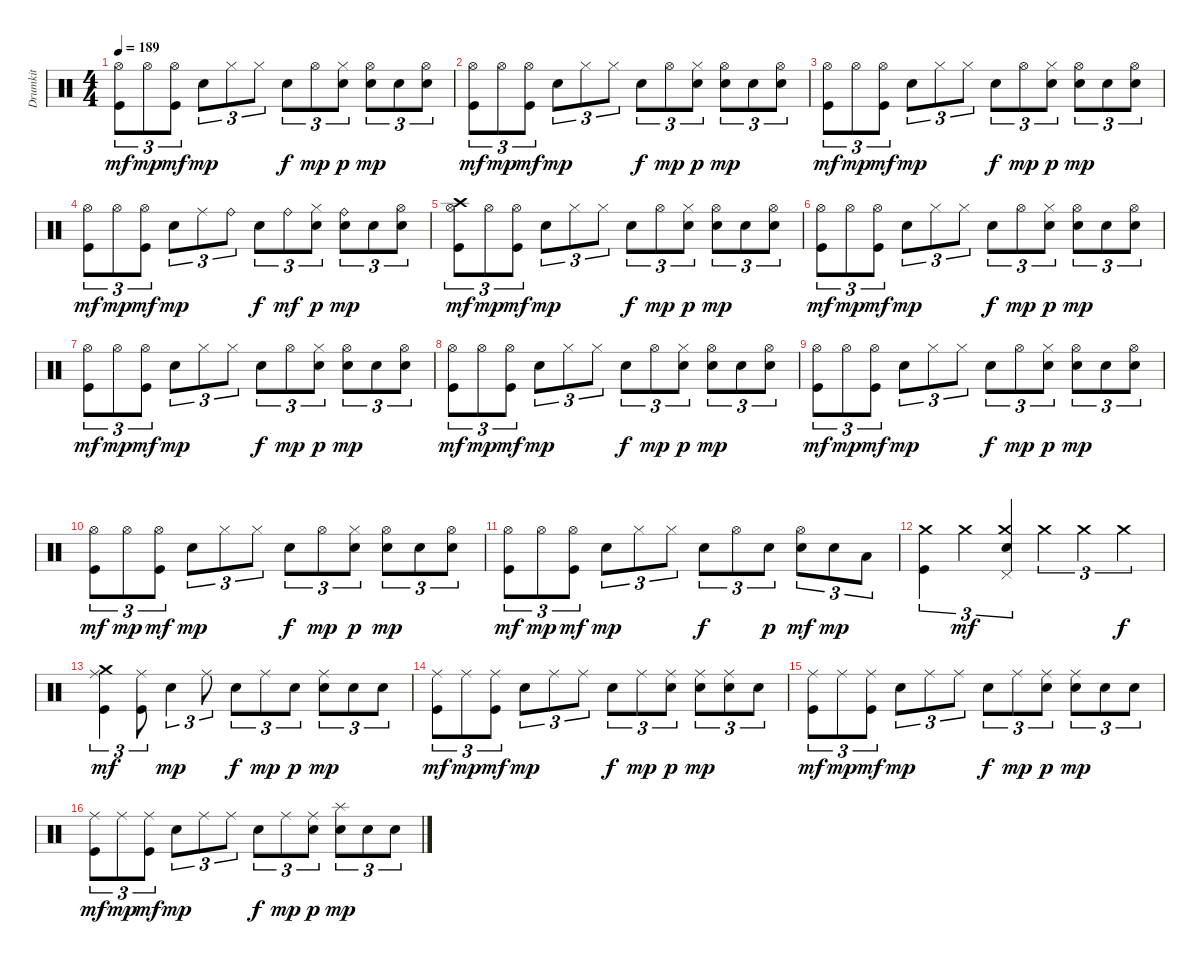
\track ("Drumkit" "Drumkit") {instrument percussion}
\staff {score}
\articulation defaults
\ts (4 4)
\tempo 189
\clef neutral
\ks c
("Kick (hit)" "Hi-Hat (open)").8{tu (3 2) dy mf} "Hi-Hat (open)".8{tu (3 2) dy mp} ("Kick (hit)" "Hi-Hat (open)").8{tu (3 2) dy mf} "Snare (hit) 2".8{tu (3 2) dy mp} "Hi-Hat (closed)".8{tu (3 2)} "Hi-Hat (closed)".8{tu (3 2)} "Snare (hit) 2".8{tu (3 2) dy f} "Hi-Hat (open)".8{tu (3 2) dy mp} ("Hi-Hat (closed)" "Snare (hit) 2").8{tu (3 2) dy p} ("Hi-Hat (open)" "Snare (hit) 2").8{tu (3 2) dy mp} "Snare (hit) 2".8{tu (3 2)} ("Snare (hit) 2" "Hi-Hat (open)").8{tu (3 2)} |
("Kick (hit)" "Hi-Hat (open)").8{tu (3 2) dy mf} "Hi-Hat (open)".8{tu (3 2) dy mp} ("Kick (hit)" "Hi-Hat (open)").8{tu (3 2) dy mf} "Snare (hit) 2".8{tu (3 2) dy mp} "Hi-Hat (closed)".8{tu (3 2)} "Hi-Hat (closed)".8{tu (3 2)} "Snare (hit) 2".8{tu (3 2) dy f} "Hi-Hat (open)".8{tu (3 2) dy mp} ("Hi-Hat (closed)" "Snare (hit) 2").8{tu (3 2) dy p} ("Hi-Hat (open)" "Snare (hit) 2").8{tu (3 2) dy mp} "Snare (hit) 2".8{tu (3 2)} ("Snare (hit) 2" "Hi-Hat (open)").8{tu (3 2)} |
("Kick (hit)" "Hi-Hat (open)").8{tu (3 2) dy mf} "Hi-Hat (open)".8{tu (3 2) dy mp} ("Kick (hit)" "Hi-Hat (open)").8{tu (3 2) dy mf} "Snare (hit) 2".8{tu (3 2) dy mp} "Hi-Hat (closed)".8{tu (3 2)} "Hi-Hat (closed)".8{tu (3 2)} "Snare (hit) 2".8{tu (3 2) dy f} "Hi-Hat (open)".8{tu (3 2) dy mp} ("Hi-Hat (closed)" "Snare (hit) 2").8{tu (3 2) dy p} ("Hi-Hat (open)" "Snare (hit) 2").8{tu (3 2) dy mp} "Snare (hit) 2".8{tu (3 2)} ("Snare (hit) 2" "Hi-Hat (open)").8{tu (3 2)} |
("Kick (hit)" "Hi-Hat (open)").8{tu (3 2) dy mf} "Hi-Hat (open)".8{tu (3 2) dy mp} ("Kick (hit)" "Hi-Hat (open)").8{tu (3 2) dy mf} "Snare (hit) 2".8{tu (3 2) dy mp} "Ride (middle)".8{tu (3 2)} "Ride (bell)".8{tu (3 2)} "Snare (hit) 2".8{tu (3 2) dy f} "Ride (bell)".8{tu (3 2) dy mf} ("Hi-Hat (closed)" "Snare (hit) 2").8{tu (3 2) dy p} ("Snare (hit) 2" "Ride (bell)").8{tu (3 2) dy mp} "Snare (hit) 2".8{tu (3 2)} ("Snare (hit) 2" "Hi-Hat (open)").8{tu (3 2)} |
("Kick (hit)" "Hi-Hat (open)" "Crash high (hit)").8{tu (3 2) dy mf} "Hi-Hat (open)".8{tu (3 2) dy mp} ("Kick (hit)" "Hi-Hat (open)").8{tu (3 2) dy mf} "Snare (hit) 2".8{tu (3 2) dy mp} "Hi-Hat (closed)".8{tu (3 2)} "Hi-Hat (closed)".8{tu (3 2)} "Snare (hit) 2".8{tu (3 2) dy f} "Hi-Hat (open)".8{tu (3 2) dy mp} ("Hi-Hat (closed)" "Snare (hit) 2").8{tu (3 2) dy p} ("Hi-Hat (open)" "Snare (hit) 2").8{tu (3 2) dy mp} "Snare (hit) 2".8{tu (3 2)} ("Snare (hit) 2" "Hi-Hat (open)").8{tu (3 2)} |
("Kick (hit)" "Hi-Hat (open)").8{tu (3 2) dy mf} "Hi-Hat (open)".8{tu (3 2) dy mp} ("Kick (hit)" "Hi-Hat (open)").8{tu (3 2) dy mf} "Snare (hit) 2".8{tu (3 2) dy mp} "Hi-Hat (closed)".8{tu (3 2)} "Hi-Hat (closed)".8{tu (3 2)} "Snare (hit) 2".8{tu (3 2) dy f} "Hi-Hat (open)".8{tu (3 2) dy mp} ("Hi-Hat (closed)" "Snare (hit) 2").8{tu (3 2) dy p} ("Hi-Hat (open)" "Snare (hit) 2").8{tu (3 2) dy mp} "Snare (hit) 2".8{tu (3 2)} ("Snare (hit) 2" "Hi-Hat (open)").8{tu (3 2)} |
("Kick (hit)" "Hi-Hat (open)").8{tu (3 2) dy mf} "Hi-Hat (open)".8{tu (3 2) dy mp} ("Kick (hit)" "Hi-Hat (open)").8{tu (3 2) dy mf} "Snare (hit) 2".8{tu (3 2) dy mp} "Hi-Hat (closed)".8{tu (3 2)} "Hi-Hat (closed)".8{tu (3 2)} "Snare (hit) 2".8{tu (3 2) dy f} "Hi-Hat (open)".8{tu (3 2) dy mp} ("Hi-Hat (closed)" "Snare (hit) 2").8{tu (3 2) dy p} ("Hi-Hat (open)" "Snare (hit) 2").8{tu (3 2) dy mp} "Snare (hit) 2".8{tu (3 2)} ("Snare (hit) 2" "Hi-Hat (open)").8{tu (3 2)} |
("Kick (hit)" "Hi-Hat (open)").8{tu (3 2) dy mf} "Hi-Hat (open)".8{tu (3 2) dy mp} ("Kick (hit)" "Hi-Hat (open)").8{tu (3 2) dy mf} "Snare (hit) 2".8{tu (3 2) dy mp} "Hi-Hat (closed)".8{tu (3 2)} "Hi-Hat (closed)".8{tu (3 2)} "Snare (hit) 2".8{tu (3 2) dy f} "Hi-Hat (open)".8{tu (3 2) dy mp} ("Hi-Hat (closed)" "Snare (hit) 2").8{tu (3 2) dy p} ("Hi-Hat (open)" "Snare (hit) 2").8{tu (3 2) dy mp} "Snare (hit) 2".8{tu (3 2)} ("Snare (hit) 2" "Hi-Hat (open)").8{tu (3 2)} |
("Kick (hit)" "Hi-Hat (open)").8{tu (3 2) dy mf} "Hi-Hat (open)".8{tu (3 2) dy mp} ("Kick (hit)" "Hi-Hat (open)").8{tu (3 2) dy mf} "Snare (hit) 2".8{tu (3 2) dy mp} "Hi-Hat (closed)".8{tu (3 2)} "Hi-Hat (closed)".8{tu (3 2)} "Snare (hit) 2".8{tu (3 2) dy f} "Hi-Hat (open)".8{tu (3 2) dy mp} ("Hi-Hat (closed)" "Snare (hit) 2").8{tu (3 2) dy p} ("Hi-Hat (open)" "Snare (hit) 2").8{tu (3 2) dy mp} "Snare (hit) 2".8{tu (3 2)} ("Snare (hit) 2" "Hi-Hat (open)").8{tu (3 2)} |
("Kick (hit)" "Hi-Hat (open)").8{tu (3 2) dy mf} "Hi-Hat (open)".8{tu (3 2) dy mp} ("Kick (hit)" "Hi-Hat (open)").8{tu (3 2) dy mf} "Snare (hit) 2".8{tu (3 2) dy mp} "Hi-Hat (closed)".8{tu (3 2)} "Hi-Hat (closed)".8{tu (3 2)} "Snare (hit) 2".8{tu (3 2) dy f} "Hi-Hat (open)".8{tu (3 2) dy mp} ("Hi-Hat (closed)" "Snare (hit) 2").8{tu (3 2) dy p} ("Hi-Hat (open)" "Snare (hit) 2").8{tu (3 2) dy mp} "Snare (hit) 2".8{tu (3 2)} ("Snare (hit) 2" "Hi-Hat (open)").8{tu (3 2)} |
("Kick (hit)" "Hi-Hat (open)").8{tu (3 2) dy mf} "Hi-Hat (open)".8{tu (3 2) dy mp} ("Kick (hit)" "Hi-Hat (open)").8{tu (3 2) dy mf} "Snare (hit) 2".8{tu (3 2) dy mp} "Hi-Hat (closed)".8{tu (3 2)} "Hi-Hat (closed)".8{tu (3 2)} "Snare (hit) 2".8{tu (3 2) dy f} "Hi-Hat (open)".8{tu (3 2)} "Snare (hit) 2".8{tu (3 2) dy p} ("Hi-Hat (open)" "Snare (hit) 2").8{tu (3 2) dy mf} "Snare (hit) 2".8{tu (3 2) dy mp} "Low Tom (hit)".8{tu (3 2)} |
("Kick (hit)" "Crash medium (hit)").4{tu (3 2)} "Crash medium (hit)".4{tu (3 2) dy mf} ("Snare (hit) 2" "Pedal Hi-Hat (hit)" "Crash medium (hit)").4{tu (3 2)} "Crash medium (hit)".4{tu (3 2)} "Crash medium (hit)".4{tu (3 2)} "Crash medium (hit)".4{tu (3 2) dy f} |
("Kick (hit)" "Ride (middle)" "Crash medium (hit)").4{tu (3 2) dy mf} ("Kick (hit)" "Ride (middle)").8{tu (3 2)} "Snare (hit) 2".4{tu (3 2) dy mp} "Ride (middle)".8{tu (3 2)} "Snare (hit) 2".8{tu (3 2) dy f} "Ride (middle)".8{tu (3 2) dy mp} "Snare (hit) 2".8{tu (3 2) dy p} ("Snare (hit) 2" "Ride (middle)").8{tu (3 2) dy mp} "Snare (hit) 2".8{tu (3 2)} "Snare (hit) 2".8{tu (3 2)} |
("Kick (hit)" "Ride (middle)").8{tu (3 2) dy mf} "Ride (middle)".8{tu (3 2) dy mp} ("Kick (hit)" "Ride (middle)").8{tu (3 2) dy mf} "Snare (hit) 2".8{tu (3 2) dy mp} "Ride (middle)".8{tu (3 2)} "Ride (middle)".8{tu (3 2)} "Snare (hit) 2".8{tu (3 2) dy f} "Ride (middle)".8{tu (3 2) dy mp} ("Snare (hit) 2" "Ride (middle)").8{tu (3 2) dy p} ("Snare (hit) 2" "Ride (middle)").8{tu (3 2) dy mp} ("Snare (hit) 2" "Ride (middle)").8{tu (3 2)} "Snare (hit) 2".8{tu (3 2)} |
("Kick (hit)" "Ride (middle)").8{tu (3 2) dy mf} "Ride (middle)".8{tu (3 2) dy mp} ("Kick (hit)" "Ride (middle)").8{tu (3 2) dy mf} "Snare (hit) 2".8{tu (3 2) dy mp} "Ride (middle)".8{tu (3 2)} "Ride (middle)".8{tu (3 2)} "Snare (hit) 2".8{tu (3 2) dy f} "Ride (middle)".8{tu (3 2) dy mp} ("Snare (hit) 2" "Ride (middle)").8{tu (3 2) dy p} ("Snare (hit) 2" "Ride (middle)").8{tu (3 2) dy mp} "Snare (hit) 2".8{tu (3 2)} "Snare (hit) 2".8{tu (3 2)} |
("Kick (hit)" "Ride (middle)").8{tu (3 2) dy mf} "Ride (middle)".8{tu (3 2) dy mp} ("Kick (hit)" "Ride (middle)").8{tu (3 2) dy mf} "Snare (hit) 2".8{tu (3 2) dy mp} "Ride (middle)".8{tu (3 2)} "Ride (middle)".8{tu (3 2)} "Snare (hit) 2".8{tu (3 2) dy f} "Ride (middle)".8{tu (3 2) dy mp} ("Snare (hit) 2" "Ride (middle)").8{tu (3 2) dy p} ("Snare (hit) 2" "Splash (hit)").8{tu (3 2) dy mp} "Snare (hit) 2".8{tu (3 2)} "Snare (hit) 2".8{tu (3 2)}
